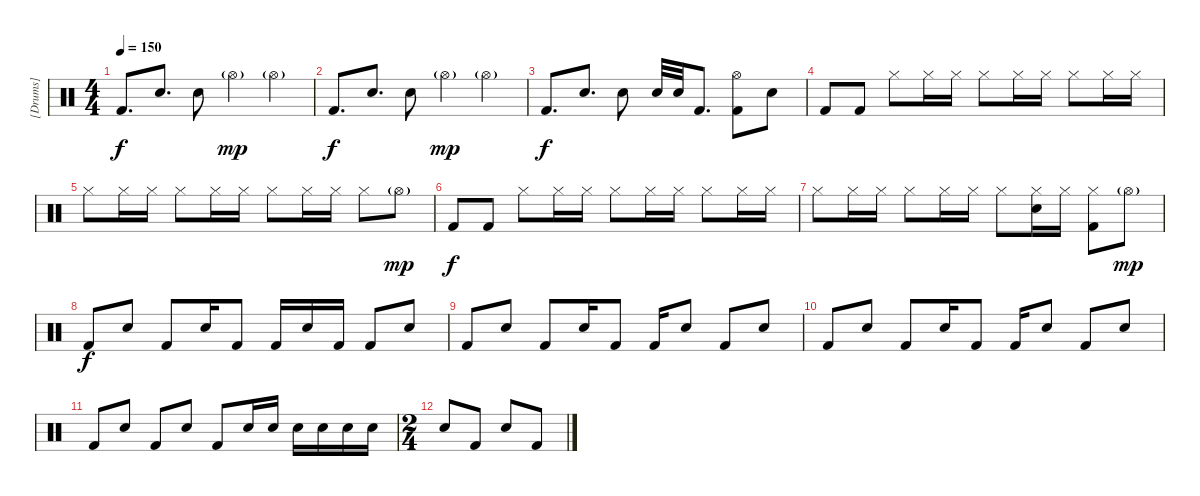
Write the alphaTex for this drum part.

\track ("[Drums]" "[Drums]") {instrument percussion}
\staff {score}
\articulation defaults
\ts (4 4)
\tempo 150
\clef neutral
\ks c "Kick (hit) 2".8{d dy f} "Electric Snare (hit)".8{d} "Electric Snare (hit)".8 "Hi-Hat (open)"{g}.4{dy mp} "Hi-Hat (open)"{g}.4
|
"Kick (hit) 2".8{d dy f} "Electric Snare (hit)".8{d} "Electric Snare (hit)".8 "Hi-Hat (open)"{g}.4{dy mp} "Hi-Hat (open)"{g}.4 |
"Kick (hit) 2".8{d dy f} "Electric Snare (hit)".8{d} "Electric Snare (hit)".8 "Electric Snare (hit)".32 "Electric Snare (hit)".32 "Kick (hit) 2".8{d} ("Hi-Hat (open)" "Kick (hit) 2").8 "Electric Snare (hit)".8 |
"Kick (hit) 2".8 "Kick (hit) 2".8 "Hi-Hat (closed)".8 "Hi-Hat (closed)".16 "Hi-Hat (closed)".16 "Hi-Hat (closed)".8 "Hi-Hat (closed)".16 "Hi-Hat (closed)".16 "Hi-Hat (closed)".8 "Hi-Hat (closed)".16 "Hi-Hat (closed)".16 |
"Hi-Hat (closed)".8 "Hi-Hat (closed)".16 "Hi-Hat (closed)".16 "Hi-Hat (closed)".8 "Hi-Hat (closed)".16 "Hi-Hat (closed)".16 "Hi-Hat (closed)".8 "Hi-Hat (closed)".16 "Hi-Hat (closed)".16 "Hi-Hat (closed)".8 "Hi-Hat (open)"{g}.8{dy mp} |
"Kick (hit) 2".8{dy f} "Kick (hit) 2".8 "Hi-Hat (closed)".8 "Hi-Hat (closed)".16 "Hi-Hat (closed)".16 "Hi-Hat (closed)".8 "Hi-Hat (closed)".16 "Hi-Hat (closed)".16 "Hi-Hat (closed)".8 "Hi-Hat (closed)".16 "Hi-Hat (closed)".16 |
"Hi-Hat (closed)".8 "Hi-Hat (closed)".16 "Hi-Hat (closed)".16 "Hi-Hat (closed)".8 "Hi-Hat (closed)".16 "Hi-Hat (closed)".16 "Hi-Hat (closed)".8 ("Hi-Hat (closed)" "Electric Snare (hit)").16 "Hi-Hat (closed)".16 ("Hi-Hat (closed)" "Kick (hit) 2").8 "Hi-Hat (open)"{g}.8{dy mp} |
"Kick (hit) 2".8{dy f} "Electric Snare (hit)".8 "Kick (hit) 2".8 "Electric Snare (hit)".16 "Kick (hit) 2".8 "Kick (hit) 2".16 "Electric Snare (hit)".16 "Kick (hit) 2".16 "Kick (hit) 2".8 "Electric Snare (hit)".8 |
"Kick (hit) 2".8 "Electric Snare (hit)".8 "Kick (hit) 2".8 "Electric Snare (hit)".16 "Kick (hit) 2".8 "Kick (hit) 2".16 "Electric Snare (hit)".8 "Kick (hit) 2".8 "Electric Snare (hit)".8 |
"Kick (hit) 2".8 "Electric Snare (hit)".8 "Kick (hit) 2".8 "Electric Snare (hit)".16 "Kick (hit) 2".8 "Kick (hit) 2".16 "Electric Snare (hit)".8 "Kick (hit) 2".8 "Electric Snare (hit)".8 |
"Kick (hit) 2".8 "Electric Snare (hit)".8 "Kick (hit) 2".8 "Electric Snare (hit)".8 "Kick (hit) 2".8 "Electric Snare (hit)".16 "Electric Snare (hit)".16 "Electric Snare (hit)".16 "Electric Snare (hit)".16 "Electric Snare (hit)".16 "Electric Snare (hit)".16 |
\ts (2 4)
"Electric Snare (hit)".8 "Kick (hit) 2".8 "Electric Snare (hit)".8 "Kick (hit) 2".8
